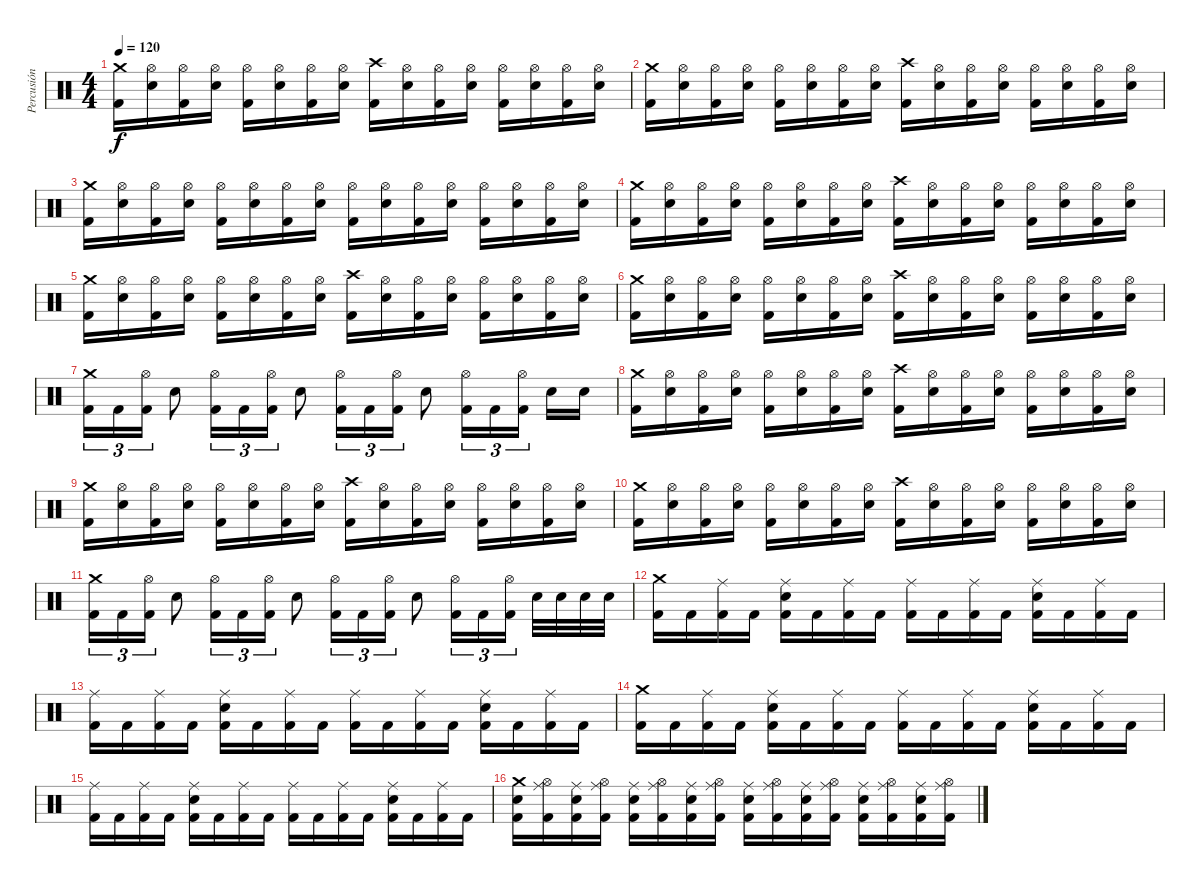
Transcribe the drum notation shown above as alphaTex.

\track ("Percusión" "Percusión") {instrument percussion}
\staff {score}
\articulation defaults
\ts (4 4)
\tempo 120
\clef neutral
\ks c
("Crash medium (hit)" "Kick (hit) 2").16{dy f} ("Hi-Hat (open)" "Electric Snare (hit)").16 ("Hi-Hat (open)" "Kick (hit) 2").16 ("Hi-Hat (open)" "Electric Snare (hit)").16 ("Hi-Hat (open)" "Kick (hit) 2").16 ("Hi-Hat (open)" "Electric Snare (hit)").16 ("Hi-Hat (open)" "Kick (hit) 2").16 ("Hi-Hat (open)" "Electric Snare (hit)").16 ("Crash high (hit)" "Kick (hit) 2").16 ("Hi-Hat (open)" "Electric Snare (hit)").16 ("Hi-Hat (open)" "Kick (hit) 2").16 ("Hi-Hat (open)" "Electric Snare (hit)").16 ("Hi-Hat (open)" "Kick (hit) 2").16 ("Hi-Hat (open)" "Electric Snare (hit)").16 ("Hi-Hat (open)" "Kick (hit) 2").16 ("Hi-Hat (open)" "Electric Snare (hit)").16 |
("Crash medium (hit)" "Kick (hit) 2").16 ("Hi-Hat (open)" "Electric Snare (hit)").16 ("Hi-Hat (open)" "Kick (hit) 2").16 ("Hi-Hat (open)" "Electric Snare (hit)").16 ("Hi-Hat (open)" "Kick (hit) 2").16 ("Hi-Hat (open)" "Electric Snare (hit)").16 ("Hi-Hat (open)" "Kick (hit) 2").16 ("Hi-Hat (open)" "Electric Snare (hit)").16 ("Crash high (hit)" "Kick (hit) 2").16 ("Hi-Hat (open)" "Electric Snare (hit)").16 ("Hi-Hat (open)" "Kick (hit) 2").16 ("Hi-Hat (open)" "Electric Snare (hit)").16 ("Hi-Hat (open)" "Kick (hit) 2").16 ("Hi-Hat (open)" "Electric Snare (hit)").16 ("Hi-Hat (open)" "Kick (hit) 2").16 ("Hi-Hat (open)" "Electric Snare (hit)").16 |
("Crash medium (hit)" "Kick (hit) 2").16 ("Hi-Hat (open)" "Electric Snare (hit)").16 ("Hi-Hat (open)" "Kick (hit) 2").16 ("Hi-Hat (open)" "Electric Snare (hit)").16 ("Hi-Hat (open)" "Kick (hit) 2").16 ("Hi-Hat (open)" "Electric Snare (hit)").16 ("Hi-Hat (open)" "Kick (hit) 2").16 ("Hi-Hat (open)" "Electric Snare (hit)").16 ("Hi-Hat (open)" "Kick (hit) 2").16 ("Hi-Hat (open)" "Electric Snare (hit)").16 ("Hi-Hat (open)" "Kick (hit) 2").16 ("Hi-Hat (open)" "Electric Snare (hit)").16 ("Hi-Hat (open)" "Kick (hit) 2").16 ("Hi-Hat (open)" "Electric Snare (hit)").16 ("Hi-Hat (open)" "Kick (hit) 2").16 ("Hi-Hat (open)" "Electric Snare (hit)").16 |
("Crash medium (hit)" "Kick (hit) 2").16 ("Hi-Hat (open)" "Electric Snare (hit)").16 ("Hi-Hat (open)" "Kick (hit) 2").16 ("Hi-Hat (open)" "Electric Snare (hit)").16 ("Hi-Hat (open)" "Kick (hit) 2").16 ("Hi-Hat (open)" "Electric Snare (hit)").16 ("Hi-Hat (open)" "Kick (hit) 2").16 ("Hi-Hat (open)" "Electric Snare (hit)").16 ("Crash high (hit)" "Kick (hit) 2").16 ("Hi-Hat (open)" "Electric Snare (hit)").16 ("Hi-Hat (open)" "Kick (hit) 2").16 ("Hi-Hat (open)" "Electric Snare (hit)").16 ("Hi-Hat (open)" "Kick (hit) 2").16 ("Hi-Hat (open)" "Electric Snare (hit)").16 ("Hi-Hat (open)" "Kick (hit) 2").16 ("Hi-Hat (open)" "Electric Snare (hit)").16 |
("Crash medium (hit)" "Kick (hit) 2").16 ("Hi-Hat (open)" "Electric Snare (hit)").16 ("Hi-Hat (open)" "Kick (hit) 2").16 ("Hi-Hat (open)" "Electric Snare (hit)").16 ("Hi-Hat (open)" "Kick (hit) 2").16 ("Hi-Hat (open)" "Electric Snare (hit)").16 ("Hi-Hat (open)" "Kick (hit) 2").16 ("Hi-Hat (open)" "Electric Snare (hit)").16 ("Crash high (hit)" "Kick (hit) 2").16 ("Hi-Hat (open)" "Electric Snare (hit)").16 ("Hi-Hat (open)" "Kick (hit) 2").16 ("Hi-Hat (open)" "Electric Snare (hit)").16 ("Hi-Hat (open)" "Kick (hit) 2").16 ("Hi-Hat (open)" "Electric Snare (hit)").16 ("Hi-Hat (open)" "Kick (hit) 2").16 ("Hi-Hat (open)" "Electric Snare (hit)").16 |
("Crash medium (hit)" "Kick (hit) 2").16 ("Hi-Hat (open)" "Electric Snare (hit)").16 ("Hi-Hat (open)" "Kick (hit) 2").16 ("Hi-Hat (open)" "Electric Snare (hit)").16 ("Hi-Hat (open)" "Kick (hit) 2").16 ("Hi-Hat (open)" "Electric Snare (hit)").16 ("Hi-Hat (open)" "Kick (hit) 2").16 ("Hi-Hat (open)" "Electric Snare (hit)").16 ("Crash high (hit)" "Kick (hit) 2").16 ("Hi-Hat (open)" "Electric Snare (hit)").16 ("Hi-Hat (open)" "Kick (hit) 2").16 ("Hi-Hat (open)" "Electric Snare (hit)").16 ("Hi-Hat (open)" "Kick (hit) 2").16 ("Hi-Hat (open)" "Electric Snare (hit)").16 ("Hi-Hat (open)" "Kick (hit) 2").16 ("Hi-Hat (open)" "Electric Snare (hit)").16 |
("Crash medium (hit)" "Kick (hit) 2").16{tu (3 2)} "Kick (hit) 2".16{tu (3 2)} ("Hi-Hat (open)" "Kick (hit) 2").16{tu (3 2)} "Electric Snare (hit)".8 ("Hi-Hat (open)" "Kick (hit) 2").16{tu (3 2)} "Kick (hit) 2".16{tu (3 2)} ("Hi-Hat (open)" "Kick (hit) 2").16{tu (3 2)} "Electric Snare (hit)".8 ("Hi-Hat (open)" "Kick (hit) 2").16{tu (3 2)} "Kick (hit) 2".16{tu (3 2)} ("Hi-Hat (open)" "Kick (hit) 2").16{tu (3 2)} "Electric Snare (hit)".8 ("Hi-Hat (open)" "Kick (hit) 2").16{tu (3 2)} "Kick (hit) 2".16{tu (3 2)} ("Hi-Hat (open)" "Kick (hit) 2").16{tu (3 2) beam splitsecondary} "Electric Snare (hit)".16 "Electric Snare (hit)".16 |
("Crash medium (hit)" "Kick (hit) 2").16 ("Hi-Hat (open)" "Electric Snare (hit)").16 ("Hi-Hat (open)" "Kick (hit) 2").16 ("Hi-Hat (open)" "Electric Snare (hit)").16 ("Hi-Hat (open)" "Kick (hit) 2").16 ("Hi-Hat (open)" "Electric Snare (hit)").16 ("Hi-Hat (open)" "Kick (hit) 2").16 ("Hi-Hat (open)" "Electric Snare (hit)").16 ("Crash high (hit)" "Kick (hit) 2").16 ("Hi-Hat (open)" "Electric Snare (hit)").16 ("Hi-Hat (open)" "Kick (hit) 2").16 ("Hi-Hat (open)" "Electric Snare (hit)").16 ("Hi-Hat (open)" "Kick (hit) 2").16 ("Hi-Hat (open)" "Electric Snare (hit)").16 ("Hi-Hat (open)" "Kick (hit) 2").16 ("Hi-Hat (open)" "Electric Snare (hit)").16 |
("Crash medium (hit)" "Kick (hit) 2").16 ("Hi-Hat (open)" "Electric Snare (hit)").16 ("Hi-Hat (open)" "Kick (hit) 2").16 ("Hi-Hat (open)" "Electric Snare (hit)").16 ("Hi-Hat (open)" "Kick (hit) 2").16 ("Hi-Hat (open)" "Electric Snare (hit)").16 ("Hi-Hat (open)" "Kick (hit) 2").16 ("Hi-Hat (open)" "Electric Snare (hit)").16 ("Crash high (hit)" "Kick (hit) 2").16 ("Hi-Hat (open)" "Electric Snare (hit)").16 ("Hi-Hat (open)" "Kick (hit) 2").16 ("Hi-Hat (open)" "Electric Snare (hit)").16 ("Hi-Hat (open)" "Kick (hit) 2").16 ("Hi-Hat (open)" "Electric Snare (hit)").16 ("Hi-Hat (open)" "Kick (hit) 2").16 ("Hi-Hat (open)" "Electric Snare (hit)").16 |
("Crash medium (hit)" "Kick (hit) 2").16 ("Hi-Hat (open)" "Electric Snare (hit)").16 ("Hi-Hat (open)" "Kick (hit) 2").16 ("Hi-Hat (open)" "Electric Snare (hit)").16 ("Hi-Hat (open)" "Kick (hit) 2").16 ("Hi-Hat (open)" "Electric Snare (hit)").16 ("Hi-Hat (open)" "Kick (hit) 2").16 ("Hi-Hat (open)" "Electric Snare (hit)").16 ("Crash high (hit)" "Kick (hit) 2").16 ("Hi-Hat (open)" "Electric Snare (hit)").16 ("Hi-Hat (open)" "Kick (hit) 2").16 ("Hi-Hat (open)" "Electric Snare (hit)").16 ("Hi-Hat (open)" "Kick (hit) 2").16 ("Hi-Hat (open)" "Electric Snare (hit)").16 ("Hi-Hat (open)" "Kick (hit) 2").16 ("Hi-Hat (open)" "Electric Snare (hit)").16 |
("Crash medium (hit)" "Kick (hit) 2").16{tu (3 2)} "Kick (hit) 2".16{tu (3 2)} ("Hi-Hat (open)" "Kick (hit) 2").16{tu (3 2)} "Electric Snare (hit)".8 ("Hi-Hat (open)" "Kick (hit) 2").16{tu (3 2)} "Kick (hit) 2".16{tu (3 2)} ("Hi-Hat (open)" "Kick (hit) 2").16{tu (3 2)} "Electric Snare (hit)".8 ("Hi-Hat (open)" "Kick (hit) 2").16{tu (3 2)} "Kick (hit) 2".16{tu (3 2)} ("Hi-Hat (open)" "Kick (hit) 2").16{tu (3 2)} "Electric Snare (hit)".8 ("Hi-Hat (open)" "Kick (hit) 2").16{tu (3 2)} "Kick (hit) 2".16{tu (3 2)} ("Hi-Hat (open)" "Kick (hit) 2").16{tu (3 2) beam splitsecondary} "Electric Snare (hit)".32 "Electric Snare (hit)".32 "Electric Snare (hit)".32 "Electric Snare (hit)".32 |
("Crash medium (hit)" "Kick (hit) 2").16 "Kick (hit) 2".16 ("Ride (middle)" "Kick (hit) 2").16 "Kick (hit) 2".16 ("Ride (middle)" "Electric Snare (hit)" "Kick (hit) 2").16 "Kick (hit) 2".16 ("Ride (middle)" "Kick (hit) 2").16 "Kick (hit) 2".16 ("Ride (middle)" "Kick (hit) 2").16 "Kick (hit) 2".16 ("Ride (middle)" "Kick (hit) 2").16 "Kick (hit) 2".16 ("Ride (middle)" "Electric Snare (hit)" "Kick (hit) 2").16 "Kick (hit) 2".16 ("Ride (middle)" "Kick (hit) 2").16 "Kick (hit) 2".16 |
("Ride (middle)" "Kick (hit) 2").16 "Kick (hit) 2".16 ("Ride (middle)" "Kick (hit) 2").16 "Kick (hit) 2".16 ("Ride (middle)" "Electric Snare (hit)" "Kick (hit) 2").16 "Kick (hit) 2".16 ("Ride (middle)" "Kick (hit) 2").16 "Kick (hit) 2".16 ("Ride (middle)" "Kick (hit) 2").16 "Kick (hit) 2".16 ("Ride (middle)" "Kick (hit) 2").16 "Kick (hit) 2".16 ("Ride (middle)" "Electric Snare (hit)" "Kick (hit) 2").16 "Kick (hit) 2".16 ("Ride (middle)" "Kick (hit) 2").16 "Kick (hit) 2".16 |
("Crash medium (hit)" "Kick (hit) 2").16 "Kick (hit) 2".16 ("Ride (middle)" "Kick (hit) 2").16 "Kick (hit) 2".16 ("Ride (middle)" "Electric Snare (hit)" "Kick (hit) 2").16 "Kick (hit) 2".16 ("Ride (middle)" "Kick (hit) 2").16 "Kick (hit) 2".16 ("Ride (middle)" "Kick (hit) 2").16 "Kick (hit) 2".16 ("Ride (middle)" "Kick (hit) 2").16 "Kick (hit) 2".16 ("Ride (middle)" "Electric Snare (hit)" "Kick (hit) 2").16 "Kick (hit) 2".16 ("Ride (middle)" "Kick (hit) 2").16 "Kick (hit) 2".16 |
("Ride (middle)" "Kick (hit) 2").16 "Kick (hit) 2".16 ("Ride (middle)" "Kick (hit) 2").16 "Kick (hit) 2".16 ("Ride (middle)" "Electric Snare (hit)" "Kick (hit) 2").16 "Kick (hit) 2".16 ("Ride (middle)" "Kick (hit) 2").16 "Kick (hit) 2".16 ("Ride (middle)" "Kick (hit) 2").16 "Kick (hit) 2".16 ("Ride (middle)" "Kick (hit) 2").16 "Kick (hit) 2".16 ("Ride (middle)" "Electric Snare (hit)" "Kick (hit) 2").16 "Kick (hit) 2".16 ("Ride (middle)" "Kick (hit) 2").16 "Kick (hit) 2".16 |
("Crash medium (hit)" "Electric Snare (hit)" "Kick (hit) 2").16 ("Ride (middle)" "Hi-Hat (open)" "Kick (hit) 2").16 ("Ride (middle)" "Electric Snare (hit)" "Kick (hit) 2").16 ("Ride (middle)" "Hi-Hat (open)" "Kick (hit) 2").16 ("Ride (middle)" "Electric Snare (hit)" "Kick (hit) 2").16 ("Ride (middle)" "Hi-Hat (open)" "Kick (hit) 2").16 ("Ride (middle)" "Electric Snare (hit)" "Kick (hit) 2").16 ("Ride (middle)" "Hi-Hat (open)" "Kick (hit) 2").16 ("Ride (middle)" "Electric Snare (hit)" "Kick (hit) 2").16 ("Ride (middle)" "Hi-Hat (open)" "Kick (hit) 2").16 ("Ride (middle)" "Electric Snare (hit)" "Kick (hit) 2").16 ("Ride (middle)" "Hi-Hat (open)" "Kick (hit) 2").16 ("Ride (middle)" "Electric Snare (hit)" "Kick (hit) 2").16 ("Ride (middle)" "Hi-Hat (open)" "Kick (hit) 2").16 ("Ride (middle)" "Electric Snare (hit)" "Kick (hit) 2").16 ("Ride (middle)" "Hi-Hat (open)" "Kick (hit) 2").16
